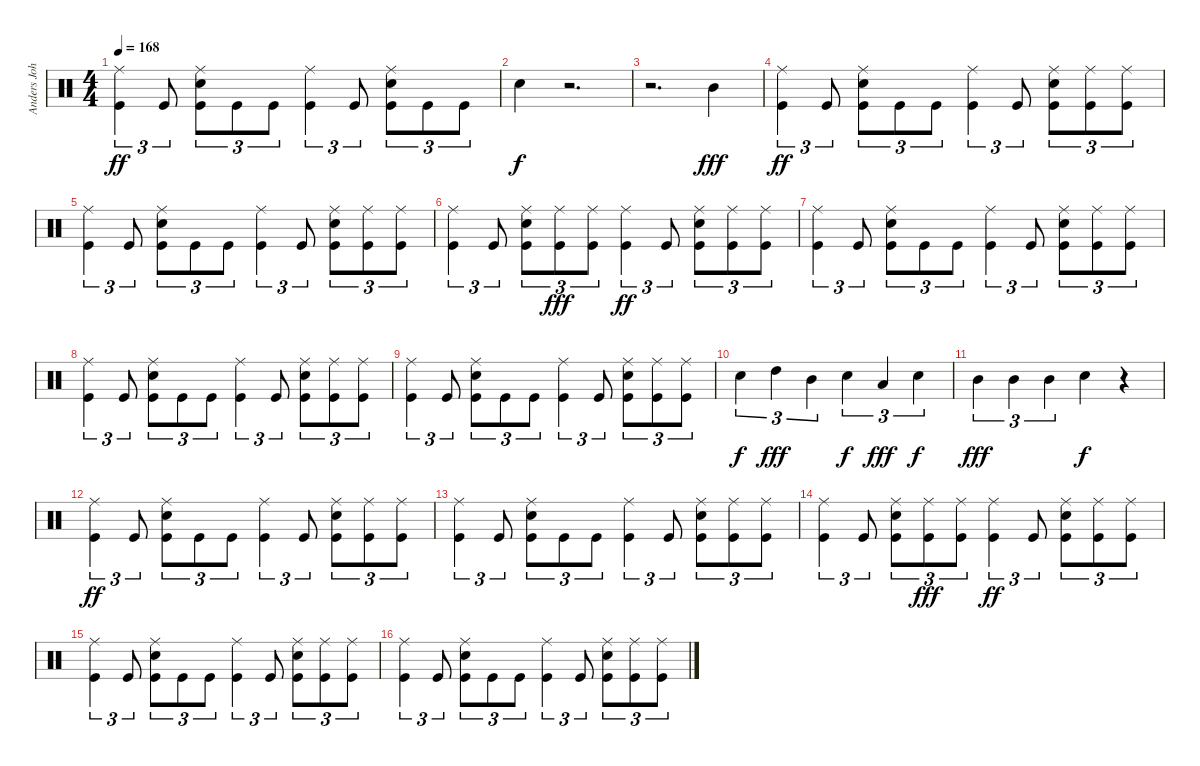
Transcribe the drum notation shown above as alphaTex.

\track ("Anders Johansson (Drums)" "Anders Joh") {instrument percussion}
\staff {score}
\articulation defaults
\ts (4 4)
\tempo 168
\clef neutral
\ks c
("Ride (middle)" "Kick (hit)").4{tu (3 2) dy ff} "Kick (hit)".8{tu (3 2)} ("Ride (middle)" "Electric Snare (hit)" "Kick (hit)").8{tu (3 2)} "Kick (hit)".8{tu (3 2)} "Kick (hit)".8{tu (3 2)} ("Ride (middle)" "Kick (hit)").4{tu (3 2)} "Kick (hit)".8{tu (3 2)} ("Ride (middle)" "Electric Snare (hit)" "Kick (hit)").8{tu (3 2)} "Kick (hit)".8{tu (3 2)} "Kick (hit)".8{tu (3 2)} |
"Electric Snare (hit)".4{dy f} r.2{d} |
r.2{d} "Mid Tom (hit)".4{dy fff} |
("Ride (middle)" "Kick (hit)").4{tu (3 2) dy ff} "Kick (hit)".8{tu (3 2)} ("Ride (middle)" "Electric Snare (hit)" "Kick (hit)").8{tu (3 2)} "Kick (hit)".8{tu (3 2)} "Kick (hit)".8{tu (3 2)} ("Ride (middle)" "Kick (hit)").4{tu (3 2)} "Kick (hit)".8{tu (3 2)} ("Ride (middle)" "Electric Snare (hit)" "Kick (hit)").8{tu (3 2)} ("Ride (middle)" "Kick (hit)").8{tu (3 2)} ("Ride (middle)" "Kick (hit)").8{tu (3 2)} |
("Ride (middle)" "Kick (hit)").4{tu (3 2)} "Kick (hit)".8{tu (3 2)} ("Ride (middle)" "Electric Snare (hit)" "Kick (hit)").8{tu (3 2)} "Kick (hit)".8{tu (3 2)} "Kick (hit)".8{tu (3 2)} ("Ride (middle)" "Kick (hit)").4{tu (3 2)} "Kick (hit)".8{tu (3 2)} ("Ride (middle)" "Electric Snare (hit)" "Kick (hit)").8{tu (3 2)} ("Ride (middle)" "Kick (hit)").8{tu (3 2)} ("Ride (middle)" "Kick (hit)").8{tu (3 2)} |
("Ride (middle)" "Kick (hit)").4{tu (3 2)} "Kick (hit)".8{tu (3 2)} ("Ride (middle)" "Electric Snare (hit)" "Kick (hit)").8{tu (3 2)} ("Kick (hit)" "Ride (middle)").8{tu (3 2) dy fff} ("Kick (hit)" "Ride (middle)").8{tu (3 2)} ("Ride (middle)" "Kick (hit)").4{tu (3 2) dy ff} "Kick (hit)".8{tu (3 2)} ("Ride (middle)" "Electric Snare (hit)" "Kick (hit)").8{tu (3 2)} ("Ride (middle)" "Kick (hit)").8{tu (3 2)} ("Ride (middle)" "Kick (hit)").8{tu (3 2)} |
("Ride (middle)" "Kick (hit)").4{tu (3 2)} "Kick (hit)".8{tu (3 2)} ("Ride (middle)" "Electric Snare (hit)" "Kick (hit)").8{tu (3 2)} "Kick (hit)".8{tu (3 2)} "Kick (hit)".8{tu (3 2)} ("Ride (middle)" "Kick (hit)").4{tu (3 2)} "Kick (hit)".8{tu (3 2)} ("Ride (middle)" "Electric Snare (hit)" "Kick (hit)").8{tu (3 2)} ("Ride (middle)" "Kick (hit)").8{tu (3 2)} ("Ride (middle)" "Kick (hit)").8{tu (3 2)} |
("Ride (middle)" "Kick (hit)").4{tu (3 2)} "Kick (hit)".8{tu (3 2)} ("Ride (middle)" "Electric Snare (hit)" "Kick (hit)").8{tu (3 2)} "Kick (hit)".8{tu (3 2)} "Kick (hit)".8{tu (3 2)} ("Ride (middle)" "Kick (hit)").4{tu (3 2)} "Kick (hit)".8{tu (3 2)} ("Ride (middle)" "Electric Snare (hit)" "Kick (hit)").8{tu (3 2)} ("Ride (middle)" "Kick (hit)").8{tu (3 2)} ("Ride (middle)" "Kick (hit)").8{tu (3 2)} |
("Ride (middle)" "Kick (hit)").4{tu (3 2)} "Kick (hit)".8{tu (3 2)} ("Ride (middle)" "Electric Snare (hit)" "Kick (hit)").8{tu (3 2)} "Kick (hit)".8{tu (3 2)} "Kick (hit)".8{tu (3 2)} ("Ride (middle)" "Kick (hit)").4{tu (3 2)} "Kick (hit)".8{tu (3 2)} ("Ride (middle)" "Electric Snare (hit)" "Kick (hit)").8{tu (3 2)} ("Ride (middle)" "Kick (hit)").8{tu (3 2)} ("Ride (middle)" "Kick (hit)").8{tu (3 2)} |
"Electric Snare (hit)".4{tu (3 2) dy f} "High Tom (hit)".4{tu (3 2) dy fff} "Mid Tom (hit)".4{tu (3 2)} "Electric Snare (hit)".4{tu (3 2) dy f} "Low Tom (hit)".4{tu (3 2) dy fff} "Electric Snare (hit)".4{tu (3 2) dy f} |
"Mid Tom (hit)".4{tu (3 2) dy fff} "Mid Tom (hit)".4{tu (3 2)} "Mid Tom (hit)".4{tu (3 2)} "Electric Snare (hit)".4{dy f} r.4 |
("Ride (middle)" "Kick (hit)").4{tu (3 2) dy ff} "Kick (hit)".8{tu (3 2)} ("Ride (middle)" "Electric Snare (hit)" "Kick (hit)").8{tu (3 2)} "Kick (hit)".8{tu (3 2)} "Kick (hit)".8{tu (3 2)} ("Ride (middle)" "Kick (hit)").4{tu (3 2)} "Kick (hit)".8{tu (3 2)} ("Ride (middle)" "Electric Snare (hit)" "Kick (hit)").8{tu (3 2)} ("Ride (middle)" "Kick (hit)").8{tu (3 2)} ("Ride (middle)" "Kick (hit)").8{tu (3 2)} |
("Ride (middle)" "Kick (hit)").4{tu (3 2)} "Kick (hit)".8{tu (3 2)} ("Ride (middle)" "Electric Snare (hit)" "Kick (hit)").8{tu (3 2)} "Kick (hit)".8{tu (3 2)} "Kick (hit)".8{tu (3 2)} ("Ride (middle)" "Kick (hit)").4{tu (3 2)} "Kick (hit)".8{tu (3 2)} ("Ride (middle)" "Electric Snare (hit)" "Kick (hit)").8{tu (3 2)} ("Ride (middle)" "Kick (hit)").8{tu (3 2)} ("Ride (middle)" "Kick (hit)").8{tu (3 2)} |
("Ride (middle)" "Kick (hit)").4{tu (3 2)} "Kick (hit)".8{tu (3 2)} ("Ride (middle)" "Electric Snare (hit)" "Kick (hit)").8{tu (3 2)} ("Kick (hit)" "Ride (middle)").8{tu (3 2) dy fff} ("Kick (hit)" "Ride (middle)").8{tu (3 2)} ("Ride (middle)" "Kick (hit)").4{tu (3 2) dy ff} "Kick (hit)".8{tu (3 2)} ("Ride (middle)" "Electric Snare (hit)" "Kick (hit)").8{tu (3 2)} ("Ride (middle)" "Kick (hit)").8{tu (3 2)} ("Ride (middle)" "Kick (hit)").8{tu (3 2)} |
("Ride (middle)" "Kick (hit)").4{tu (3 2)} "Kick (hit)".8{tu (3 2)} ("Ride (middle)" "Electric Snare (hit)" "Kick (hit)").8{tu (3 2)} "Kick (hit)".8{tu (3 2)} "Kick (hit)".8{tu (3 2)} ("Ride (middle)" "Kick (hit)").4{tu (3 2)} "Kick (hit)".8{tu (3 2)} ("Ride (middle)" "Electric Snare (hit)" "Kick (hit)").8{tu (3 2)} ("Ride (middle)" "Kick (hit)").8{tu (3 2)} ("Ride (middle)" "Kick (hit)").8{tu (3 2)} |
("Ride (middle)" "Kick (hit)").4{tu (3 2)} "Kick (hit)".8{tu (3 2)} ("Ride (middle)" "Electric Snare (hit)" "Kick (hit)").8{tu (3 2)} "Kick (hit)".8{tu (3 2)} "Kick (hit)".8{tu (3 2)} ("Ride (middle)" "Kick (hit)").4{tu (3 2)} "Kick (hit)".8{tu (3 2)} ("Ride (middle)" "Electric Snare (hit)" "Kick (hit)").8{tu (3 2)} ("Ride (middle)" "Kick (hit)").8{tu (3 2)} ("Ride (middle)" "Kick (hit)").8{tu (3 2)}
